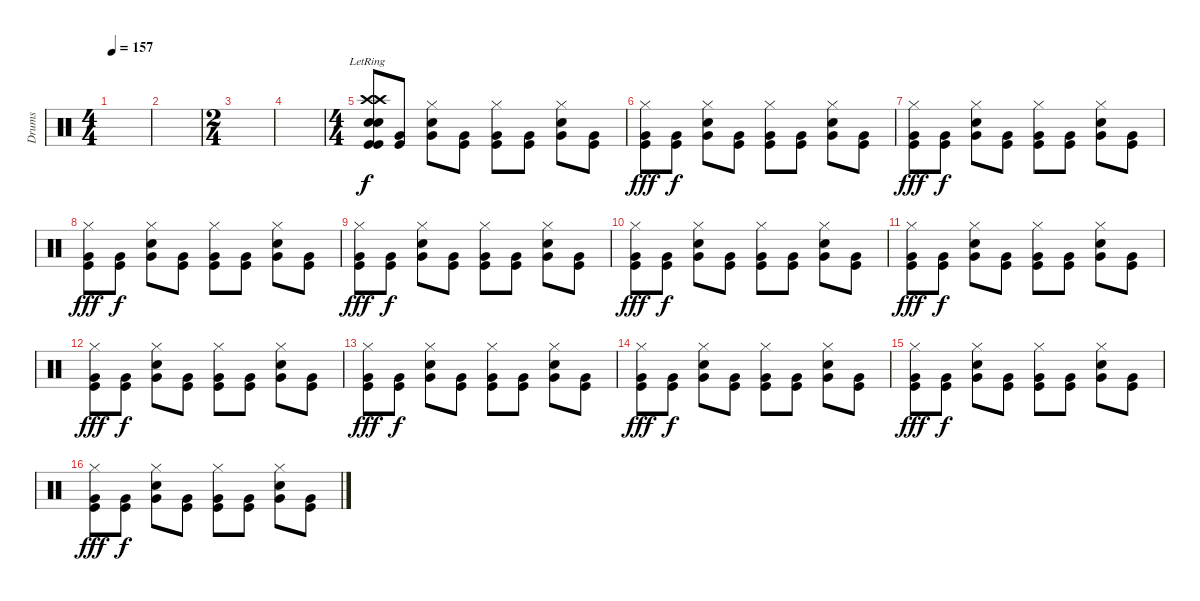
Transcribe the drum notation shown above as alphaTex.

\track ("Drums" "Drums") {instrument percussion}
\staff {score}
\articulation defaults
\ts (4 4)
\tempo 157
\clef neutral
\ks c
|
|
\ts (2 4)
|
|
\ts (4 4)
("Kick (hit)" "Crash high (hit)"{lr} "Crash high (hit)"{lr} "Snare (hit) 2" "Snare (hit) 2"{lr} "Kick (hit)").8 ("Very Low Tom (hit)" "Kick (hit)").8{dy f} ("Very Low Tom (hit)" "Hi-Hat (closed)" "Snare (hit) 2").8 ("Very Low Tom (hit)" "Kick (hit)").8 ("Very Low Tom (hit)" "Hi-Hat (closed)" "Kick (hit)").8 ("Very Low Tom (hit)" "Kick (hit)").8 ("Very Low Tom (hit)" "Hi-Hat (closed)" "Snare (hit) 2").8 ("Very Low Tom (hit)" "Kick (hit)").8 |
("Very Low Tom (hit)" "Hi-Hat (closed)" "Kick (hit)").8{dy fff} ("Very Low Tom (hit)" "Kick (hit)").8{dy f} ("Very Low Tom (hit)" "Hi-Hat (closed)" "Snare (hit) 2").8 ("Very Low Tom (hit)" "Kick (hit)").8 ("Very Low Tom (hit)" "Hi-Hat (closed)" "Kick (hit)").8 ("Very Low Tom (hit)" "Kick (hit)").8 ("Very Low Tom (hit)" "Hi-Hat (closed)" "Snare (hit) 2").8 ("Very Low Tom (hit)" "Kick (hit)").8 |
("Very Low Tom (hit)" "Hi-Hat (closed)" "Kick (hit)").8{dy fff} ("Very Low Tom (hit)" "Kick (hit)").8{dy f} ("Very Low Tom (hit)" "Hi-Hat (closed)" "Snare (hit) 2").8 ("Very Low Tom (hit)" "Kick (hit)").8 ("Very Low Tom (hit)" "Hi-Hat (closed)" "Kick (hit)").8 ("Very Low Tom (hit)" "Kick (hit)").8 ("Very Low Tom (hit)" "Hi-Hat (closed)" "Snare (hit) 2").8 ("Very Low Tom (hit)" "Kick (hit)").8 |
("Very Low Tom (hit)" "Hi-Hat (closed)" "Kick (hit)").8{dy fff} ("Very Low Tom (hit)" "Kick (hit)").8{dy f} ("Very Low Tom (hit)" "Hi-Hat (closed)" "Snare (hit) 2").8 ("Very Low Tom (hit)" "Kick (hit)").8 ("Very Low Tom (hit)" "Hi-Hat (closed)" "Kick (hit)").8 ("Very Low Tom (hit)" "Kick (hit)").8 ("Very Low Tom (hit)" "Hi-Hat (closed)" "Snare (hit) 2").8 ("Very Low Tom (hit)" "Kick (hit)").8 |
("Very Low Tom (hit)" "Hi-Hat (closed)" "Kick (hit)").8{dy fff} ("Very Low Tom (hit)" "Kick (hit)").8{dy f} ("Very Low Tom (hit)" "Hi-Hat (closed)" "Snare (hit) 2").8 ("Very Low Tom (hit)" "Kick (hit)").8 ("Very Low Tom (hit)" "Hi-Hat (closed)" "Kick (hit)").8 ("Very Low Tom (hit)" "Kick (hit)").8 ("Very Low Tom (hit)" "Hi-Hat (closed)" "Snare (hit) 2").8 ("Very Low Tom (hit)" "Kick (hit)").8 |
("Very Low Tom (hit)" "Hi-Hat (closed)" "Kick (hit)").8{dy fff} ("Very Low Tom (hit)" "Kick (hit)").8{dy f} ("Very Low Tom (hit)" "Hi-Hat (closed)" "Snare (hit) 2").8 ("Very Low Tom (hit)" "Kick (hit)").8 ("Very Low Tom (hit)" "Hi-Hat (closed)" "Kick (hit)").8 ("Very Low Tom (hit)" "Kick (hit)").8 ("Very Low Tom (hit)" "Hi-Hat (closed)" "Snare (hit) 2").8 ("Very Low Tom (hit)" "Kick (hit)").8 |
("Very Low Tom (hit)" "Hi-Hat (closed)" "Kick (hit)").8{dy fff} ("Very Low Tom (hit)" "Kick (hit)").8{dy f} ("Very Low Tom (hit)" "Hi-Hat (closed)" "Snare (hit) 2").8 ("Very Low Tom (hit)" "Kick (hit)").8 ("Very Low Tom (hit)" "Hi-Hat (closed)" "Kick (hit)").8 ("Very Low Tom (hit)" "Kick (hit)").8 ("Very Low Tom (hit)" "Hi-Hat (closed)" "Snare (hit) 2").8 ("Very Low Tom (hit)" "Kick (hit)").8 |
("Very Low Tom (hit)" "Hi-Hat (closed)" "Kick (hit)").8{dy fff} ("Very Low Tom (hit)" "Kick (hit)").8{dy f} ("Very Low Tom (hit)" "Hi-Hat (closed)" "Snare (hit) 2").8 ("Very Low Tom (hit)" "Kick (hit)").8 ("Very Low Tom (hit)" "Hi-Hat (closed)" "Kick (hit)").8 ("Very Low Tom (hit)" "Kick (hit)").8 ("Very Low Tom (hit)" "Hi-Hat (closed)" "Snare (hit) 2").8 ("Very Low Tom (hit)" "Kick (hit)").8 |
("Very Low Tom (hit)" "Hi-Hat (closed)" "Kick (hit)").8{dy fff} ("Very Low Tom (hit)" "Kick (hit)").8{dy f} ("Very Low Tom (hit)" "Hi-Hat (closed)" "Snare (hit) 2").8 ("Very Low Tom (hit)" "Kick (hit)").8 ("Very Low Tom (hit)" "Hi-Hat (closed)" "Kick (hit)").8 ("Very Low Tom (hit)" "Kick (hit)").8 ("Very Low Tom (hit)" "Hi-Hat (closed)" "Snare (hit) 2").8 ("Very Low Tom (hit)" "Kick (hit)").8 |
("Very Low Tom (hit)" "Hi-Hat (closed)" "Kick (hit)").8{dy fff} ("Very Low Tom (hit)" "Kick (hit)").8{dy f} ("Very Low Tom (hit)" "Hi-Hat (closed)" "Snare (hit) 2").8 ("Very Low Tom (hit)" "Kick (hit)").8 ("Very Low Tom (hit)" "Hi-Hat (closed)" "Kick (hit)").8 ("Very Low Tom (hit)" "Kick (hit)").8 ("Very Low Tom (hit)" "Hi-Hat (closed)" "Snare (hit) 2").8 ("Very Low Tom (hit)" "Kick (hit)").8 |
("Very Low Tom (hit)" "Hi-Hat (closed)" "Kick (hit)").8{dy fff} ("Very Low Tom (hit)" "Kick (hit)").8{dy f} ("Very Low Tom (hit)" "Hi-Hat (closed)" "Snare (hit) 2").8 ("Very Low Tom (hit)" "Kick (hit)").8 ("Very Low Tom (hit)" "Hi-Hat (closed)" "Kick (hit)").8 ("Very Low Tom (hit)" "Kick (hit)").8 ("Very Low Tom (hit)" "Hi-Hat (closed)" "Snare (hit) 2").8 ("Very Low Tom (hit)" "Kick (hit)").8 |
("Very Low Tom (hit)" "Hi-Hat (closed)" "Kick (hit)").8{dy fff} ("Very Low Tom (hit)" "Kick (hit)").8{dy f} ("Very Low Tom (hit)" "Hi-Hat (closed)" "Snare (hit) 2").8 ("Very Low Tom (hit)" "Kick (hit)").8 ("Very Low Tom (hit)" "Hi-Hat (closed)" "Kick (hit)").8 ("Very Low Tom (hit)" "Kick (hit)").8 ("Very Low Tom (hit)" "Hi-Hat (closed)" "Snare (hit) 2").8 ("Very Low Tom (hit)" "Kick (hit)").8
